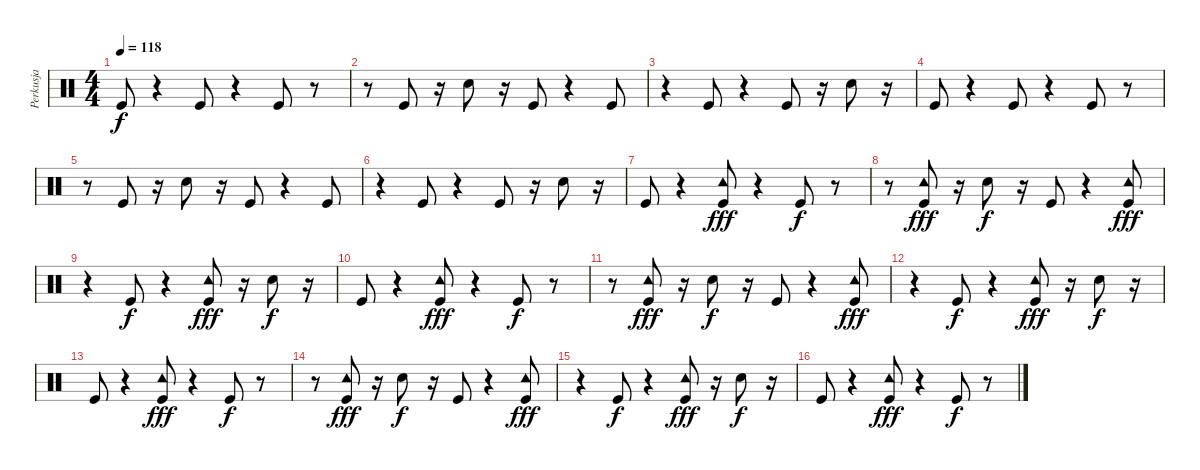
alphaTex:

\track ("Perkusja" "Perkusja") {instrument percussion}
\staff {score}
\articulation defaults
\ts (4 4)
\tempo 118
\clef neutral
\ks c "Kick (hit)".8{dy f}
r.4 "Kick (hit)".8 r.4 "Kick (hit)".8 r.8 |
r.8 "Kick (hit)".8 r.16 "Electric Snare (hit)".8 r.16 "Kick (hit)".8 r.4 "Kick (hit)".8 |
r.4 "Kick (hit)".8 r.4 "Kick (hit)".8 r.16 "Electric Snare (hit)".8 r.16 |
"Kick (hit)".8 r.4 "Kick (hit)".8 r.4 "Kick (hit)".8 r.8 |
r.8 "Kick (hit)".8 r.16 "Electric Snare (hit)".8 r.16 "Kick (hit)".8 r.4 "Kick (hit)".8 |
r.4 "Kick (hit)".8 r.4 "Kick (hit)".8 r.16 "Electric Snare (hit)".8 r.16 |
"Kick (hit)".8 r.4 ("Kick (hit)" "Tambourine (hit)").8{dy fff} r.4 "Kick (hit)".8{dy f} r.8 |
r.8 ("Kick (hit)" "Tambourine (hit)").8{dy fff} r.16 "Electric Snare (hit)".8{dy f} r.16 "Kick (hit)".8 r.4 ("Kick (hit)" "Tambourine (hit)").8{dy fff} |
r.4 "Kick (hit)".8{dy f} r.4 ("Kick (hit)" "Tambourine (hit)").8{dy fff} r.16 "Electric Snare (hit)".8{dy f} r.16 |
"Kick (hit)".8 r.4 ("Kick (hit)" "Tambourine (hit)").8{dy fff} r.4 "Kick (hit)".8{dy f} r.8 |
r.8 ("Kick (hit)" "Tambourine (hit)").8{dy fff} r.16 "Electric Snare (hit)".8{dy f} r.16 "Kick (hit)".8 r.4 ("Kick (hit)" "Tambourine (hit)").8{dy fff} |
r.4 "Kick (hit)".8{dy f} r.4 ("Kick (hit)" "Tambourine (hit)").8{dy fff} r.16 "Electric Snare (hit)".8{dy f} r.16 |
"Kick (hit)".8 r.4 ("Kick (hit)" "Tambourine (hit)").8{dy fff} r.4 "Kick (hit)".8{dy f} r.8 |
r.8 ("Kick (hit)" "Tambourine (hit)").8{dy fff} r.16 "Electric Snare (hit)".8{dy f} r.16 "Kick (hit)".8 r.4 ("Kick (hit)" "Tambourine (hit)").8{dy fff} |
r.4 "Kick (hit)".8{dy f} r.4 ("Kick (hit)" "Tambourine (hit)").8{dy fff} r.16 "Electric Snare (hit)".8{dy f} r.16 |
"Kick (hit)".8 r.4 ("Kick (hit)" "Tambourine (hit)").8{dy fff} r.4 "Kick (hit)".8{dy f} r.8
